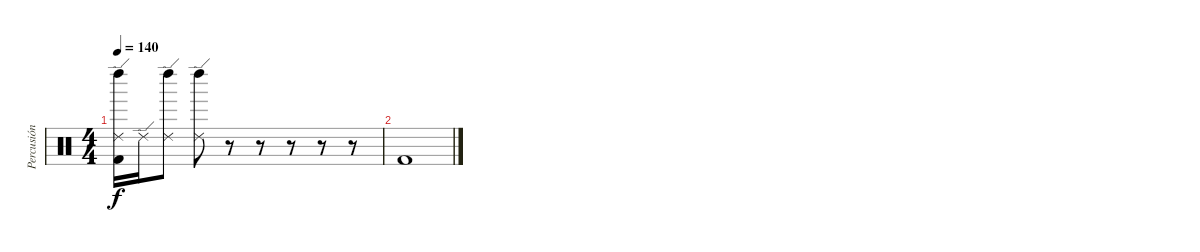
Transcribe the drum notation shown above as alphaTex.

\track ("Percusión" "Percusión") {instrument percussion}
\staff {score}
\articulation defaults
\ts (4 4)
\tempo 140
\clef neutral
\ks c
("Ride (edge) 2" "Kick (hit) 2" "Left Maraca (hit)").16{dy f} "Ride (edge) 2".16 ("Ride (edge) 2" "Left Maraca (hit)").8 ("Ride (edge) 2" "Left Maraca (hit)").8 r.8 r.8 r.8 r.8 r.8 |
"Kick (hit) 2".1
